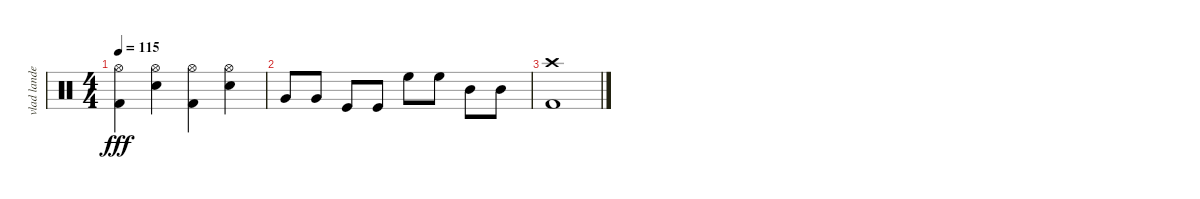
\track ("vlad landeros" "vlad lande") {instrument percussion}
\staff {score}
\articulation defaults
\ts (4 4)
\tempo 115
\clef neutral
\ks c
("Hi-Hat (open)" "Kick (hit) 2").4{dy fff} ("Hi-Hat (open)" "Electric Snare (hit)").4 ("Hi-Hat (open)" "Kick (hit) 2").4 ("Hi-Hat (open)" "Electric Snare (hit)").4 |
"Very Low Tom (hit)".8 "Very Low Tom (hit)".8 "Kick (hit)".8 "Kick (hit)".8 "High Floor Tom (hit)".8 "High Floor Tom (hit)".8 "Mid Tom (hit)".8 "Mid Tom (hit)".8 |
("Crash high (hit)" "Kick (hit) 2").1
